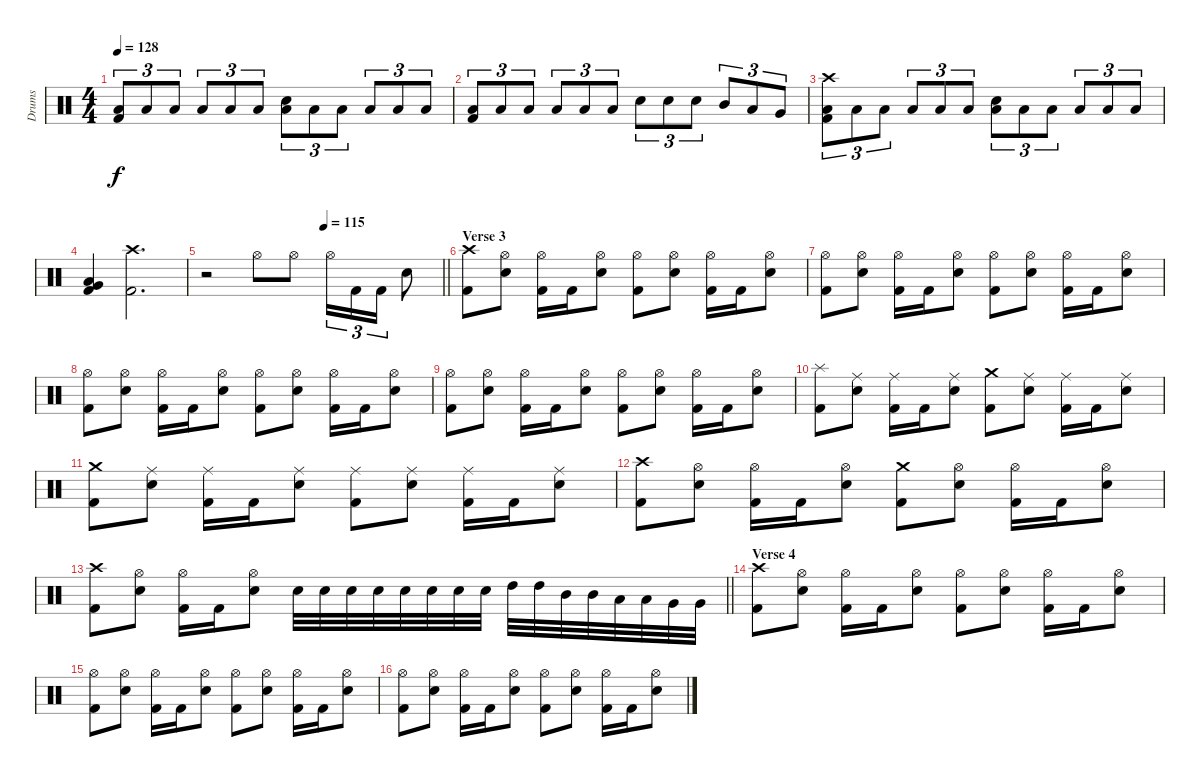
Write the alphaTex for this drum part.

\track ("Drums" "Drums") {instrument percussion}
\staff {score}
\articulation defaults
\ts (4 4)
\tempo 128
\clef neutral
\ks c
("Low Floor Tom (hit)" "Kick (hit) 2").8{tu (3 2) dy f} "Low Floor Tom (hit)".8{tu (3 2)} "Low Floor Tom (hit)".8{tu (3 2)} "Low Floor Tom (hit)".8{tu (3 2)} "Low Floor Tom (hit)".8{tu (3 2)} "Low Floor Tom (hit)".8{tu (3 2)} ("Low Floor Tom (hit)" "Electric Snare (hit)").8{tu (3 2)} "Low Floor Tom (hit)".8{tu (3 2)} "Low Floor Tom (hit)".8{tu (3 2)} "Low Floor Tom (hit)".8{tu (3 2)} "Low Floor Tom (hit)".8{tu (3 2)} "Low Floor Tom (hit)".8{tu (3 2)} |
("Low Floor Tom (hit)" "Kick (hit) 2").8{tu (3 2)} "Low Floor Tom (hit)".8{tu (3 2)} "Low Floor Tom (hit)".8{tu (3 2)} "Low Floor Tom (hit)".8{tu (3 2)} "Low Floor Tom (hit)".8{tu (3 2)} "Low Floor Tom (hit)".8{tu (3 2)} "Electric Snare (hit)".8{tu (3 2)} "Electric Snare (hit)".8{tu (3 2)} "Electric Snare (hit)".8{tu (3 2)} "Mid Tom (hit)".8{tu (3 2)} "Low Tom (hit)".8{tu (3 2)} "Very Low Tom (hit)".8{tu (3 2)} |
("Crash high (hit)" "Low Floor Tom (hit)" "Kick (hit) 2").8{tu (3 2)} "Low Floor Tom (hit)".8{tu (3 2)} "Low Floor Tom (hit)".8{tu (3 2)} "Low Floor Tom (hit)".8{tu (3 2)} "Low Floor Tom (hit)".8{tu (3 2)} "Low Floor Tom (hit)".8{tu (3 2)} ("Low Floor Tom (hit)" "Electric Snare (hit)").8{tu (3 2)} "Low Floor Tom (hit)".8{tu (3 2)} "Low Floor Tom (hit)".8{tu (3 2)} "Low Floor Tom (hit)".8{tu (3 2)} "Low Floor Tom (hit)".8{tu (3 2)} "Low Floor Tom (hit)".8{tu (3 2)} |
("Very Low Tom (hit)" "Low Floor Tom (hit)" "Kick (hit) 2").4 ("Crash high (hit)" "Kick (hit) 2").2{d} |
\tempo (115 0.5)
\barLineRight lightlight
r.2 "Hi-Hat (open)".8 "Hi-Hat (open)".8 "Hi-Hat (open)".16{tu (3 2)} "Kick (hit) 2".16{tu (3 2)} "Kick (hit) 2".16{tu (3 2)} "Electric Snare (hit)".8 |
\section ("" "Verse 3")
("Crash high (hit)" "Kick (hit) 2").8 ("Hi-Hat (open)" "Electric Snare (hit)").8 ("Hi-Hat (open)" "Kick (hit) 2").16 "Kick (hit) 2".16 ("Hi-Hat (open)" "Electric Snare (hit)").8 ("Hi-Hat (open)" "Kick (hit) 2").8 ("Hi-Hat (open)" "Electric Snare (hit)").8 ("Hi-Hat (open)" "Kick (hit) 2").16 "Kick (hit) 2".16 ("Hi-Hat (open)" "Electric Snare (hit)").8 |
("Hi-Hat (open)" "Kick (hit) 2").8 ("Hi-Hat (open)" "Electric Snare (hit)").8 ("Hi-Hat (open)" "Kick (hit) 2").16 "Kick (hit) 2".16 ("Hi-Hat (open)" "Electric Snare (hit)").8 ("Hi-Hat (open)" "Kick (hit) 2").8 ("Hi-Hat (open)" "Electric Snare (hit)").8 ("Hi-Hat (open)" "Kick (hit) 2").16 "Kick (hit) 2".16 ("Hi-Hat (open)" "Electric Snare (hit)").8 |
("Hi-Hat (open)" "Kick (hit) 2").8 ("Hi-Hat (open)" "Electric Snare (hit)").8 ("Hi-Hat (open)" "Kick (hit) 2").16 "Kick (hit) 2".16 ("Hi-Hat (open)" "Electric Snare (hit)").8 ("Hi-Hat (open)" "Kick (hit) 2").8 ("Hi-Hat (open)" "Electric Snare (hit)").8 ("Hi-Hat (open)" "Kick (hit) 2").16 "Kick (hit) 2".16 ("Hi-Hat (open)" "Electric Snare (hit)").8 |
("Hi-Hat (open)" "Kick (hit) 2").8 ("Hi-Hat (open)" "Electric Snare (hit)").8 ("Hi-Hat (open)" "Kick (hit) 2").16 "Kick (hit) 2".16 ("Hi-Hat (open)" "Electric Snare (hit)").8 ("Hi-Hat (open)" "Kick (hit) 2").8 ("Hi-Hat (open)" "Electric Snare (hit)").8 ("Hi-Hat (open)" "Kick (hit) 2").16 "Kick (hit) 2".16 ("Hi-Hat (open)" "Electric Snare (hit)").8 |
("Splash (hit)" "Kick (hit) 2").8 ("Ride (middle)" "Electric Snare (hit)").8 ("Ride (middle)" "Kick (hit) 2").16 "Kick (hit) 2".16 ("Ride (middle)" "Electric Snare (hit)").8 ("Crash medium (hit)" "Kick (hit) 2").8 ("Ride (middle)" "Electric Snare (hit)").8 ("Ride (middle)" "Kick (hit) 2").16 "Kick (hit) 2".16 ("Ride (middle)" "Electric Snare (hit)").8 |
("Crash medium (hit)" "Kick (hit) 2").8 ("Ride (middle)" "Electric Snare (hit)").8 ("Ride (middle)" "Kick (hit) 2").16 "Kick (hit) 2".16 ("Ride (middle)" "Electric Snare (hit)").8 ("Ride (middle)" "Kick (hit) 2").8 ("Ride (middle)" "Electric Snare (hit)").8 ("Ride (middle)" "Kick (hit) 2").16 "Kick (hit) 2".16 ("Ride (middle)" "Electric Snare (hit)").8 |
("Crash high (hit)" "Kick (hit) 2").8 ("Hi-Hat (open)" "Electric Snare (hit)").8 ("Hi-Hat (open)" "Kick (hit) 2").16 "Kick (hit) 2".16 ("Hi-Hat (open)" "Electric Snare (hit)").8 ("Crash medium (hit)" "Kick (hit) 2").8 ("Hi-Hat (open)" "Electric Snare (hit)").8 ("Hi-Hat (open)" "Kick (hit) 2").16 "Kick (hit) 2".16 ("Hi-Hat (open)" "Electric Snare (hit)").8 |
\barLineRight lightlight
("Crash high (hit)" "Kick (hit) 2").8 ("Hi-Hat (open)" "Electric Snare (hit)").8 ("Hi-Hat (open)" "Kick (hit) 2").16 "Kick (hit) 2".16 ("Hi-Hat (open)" "Electric Snare (hit)").8 "Electric Snare (hit)".32 "Electric Snare (hit)".32 "Electric Snare (hit)".32 "Electric Snare (hit)".32 "Electric Snare (hit)".32 "Electric Snare (hit)".32 "Electric Snare (hit)".32 "Electric Snare (hit)".32 "High Tom (hit)".32 "High Tom (hit)".32 "Mid Tom (hit)".32 "Mid Tom (hit)".32 "Low Tom (hit)".32 "Low Tom (hit)".32 "Very Low Tom (hit)".32 "Very Low Tom (hit)".32 |
\section ("" "Verse 4")
("Crash high (hit)" "Kick (hit) 2").8 ("Hi-Hat (open)" "Electric Snare (hit)").8 ("Hi-Hat (open)" "Kick (hit) 2").16 "Kick (hit) 2".16 ("Hi-Hat (open)" "Electric Snare (hit)").8 ("Hi-Hat (open)" "Kick (hit) 2").8 ("Hi-Hat (open)" "Electric Snare (hit)").8 ("Hi-Hat (open)" "Kick (hit) 2").16 "Kick (hit) 2".16 ("Hi-Hat (open)" "Electric Snare (hit)").8 |
("Hi-Hat (open)" "Kick (hit) 2").8 ("Hi-Hat (open)" "Electric Snare (hit)").8 ("Hi-Hat (open)" "Kick (hit) 2").16 "Kick (hit) 2".16 ("Hi-Hat (open)" "Electric Snare (hit)").8 ("Hi-Hat (open)" "Kick (hit) 2").8 ("Hi-Hat (open)" "Electric Snare (hit)").8 ("Hi-Hat (open)" "Kick (hit) 2").16 "Kick (hit) 2".16 ("Hi-Hat (open)" "Electric Snare (hit)").8 |
("Hi-Hat (open)" "Kick (hit) 2").8 ("Hi-Hat (open)" "Electric Snare (hit)").8 ("Hi-Hat (open)" "Kick (hit) 2").16 "Kick (hit) 2".16 ("Hi-Hat (open)" "Electric Snare (hit)").8 ("Hi-Hat (open)" "Kick (hit) 2").8 ("Hi-Hat (open)" "Electric Snare (hit)").8 ("Hi-Hat (open)" "Kick (hit) 2").16 "Kick (hit) 2".16 ("Hi-Hat (open)" "Electric Snare (hit)").8
